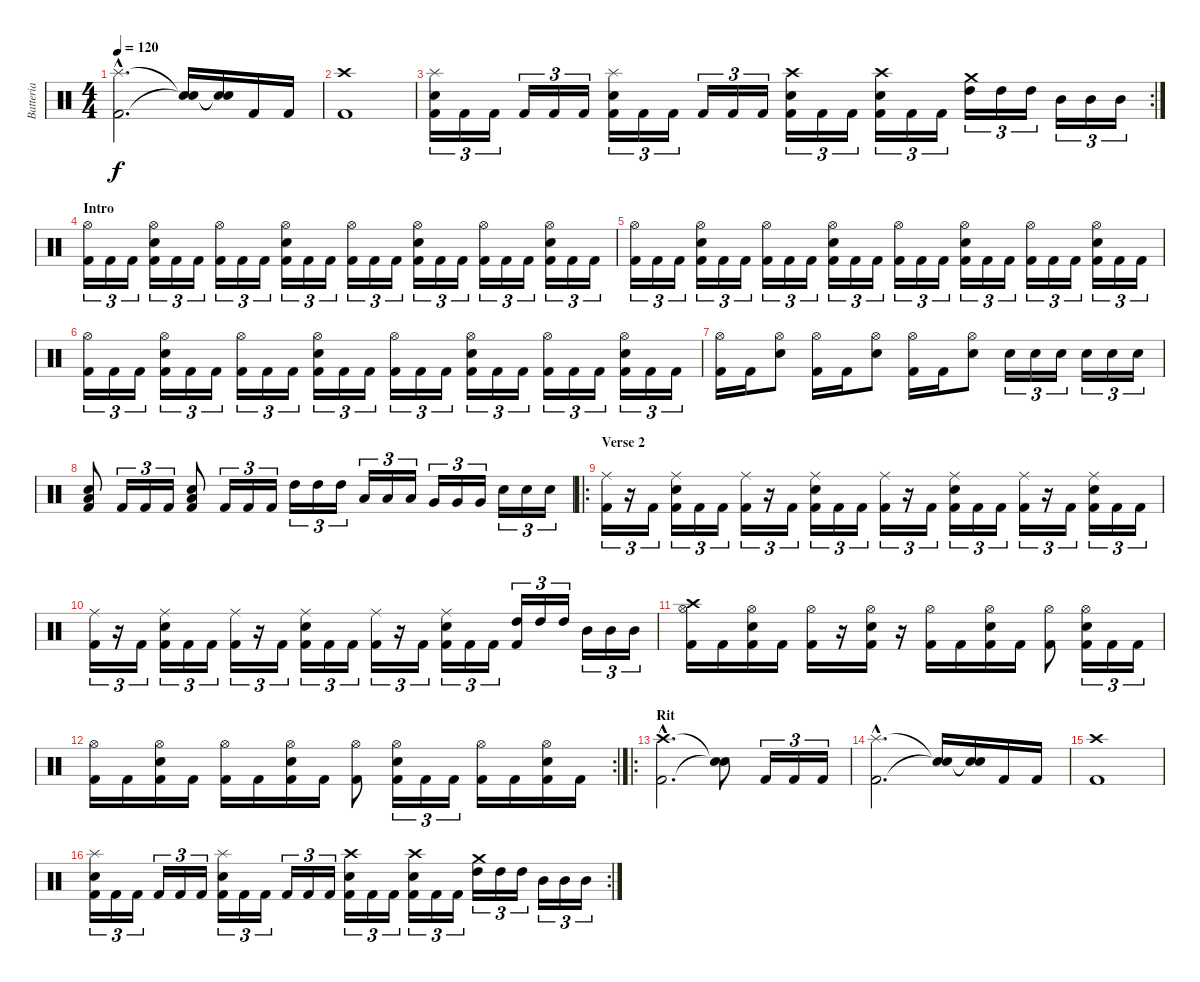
\track ("Batteria" "Batteria") {instrument percussion}
\staff {score}
\articulation defaults
\ts (4 4)
\tempo 120
\clef neutral
\ks c
("Splash (hit)"{hac} "Kick (hit) 2"{hac}).2{d dy f} ("Snare (hit)"{t} "Snare (hit)"{t}).16 ("Snare (hit)"{t} "Snare (hit)"{t}).16 "Kick (hit) 2".16 "Kick (hit) 2".16 |
("Crash high (hit)" "Kick (hit) 2").1 |
\rc 2
("Splash (hit)" "Snare (hit) 2" "Kick (hit) 2").16{tu (3 2)} "Kick (hit) 2".16{tu (3 2)} "Kick (hit) 2".16{tu (3 2)} "Kick (hit) 2".16{tu (3 2)} "Kick (hit) 2".16{tu (3 2)} "Kick (hit) 2".16{tu (3 2)} ("Splash (hit)" "Snare (hit) 2" "Kick (hit) 2").16{tu (3 2)} "Kick (hit) 2".16{tu (3 2)} "Kick (hit) 2".16{tu (3 2)} "Kick (hit) 2".16{tu (3 2)} "Kick (hit) 2".16{tu (3 2)} "Kick (hit) 2".16{tu (3 2)} ("Crash high (hit)" "Snare (hit) 2" "Kick (hit) 2").16{tu (3 2)} "Kick (hit) 2".16{tu (3 2)} "Kick (hit) 2".16{tu (3 2)} ("Crash high (hit)" "Snare (hit) 2" "Kick (hit) 2").16{tu (3 2)} "Kick (hit) 2".16{tu (3 2)} "Kick (hit) 2".16{tu (3 2)} ("Crash medium (hit)" "High Tom (hit)").16{tu (3 2)} "High Tom (hit)".16{tu (3 2)} "High Tom (hit)".16{tu (3 2)} "Mid Tom (hit)".16{tu (3 2)} "Mid Tom (hit)".16{tu (3 2)} "Mid Tom (hit)".16{tu (3 2)} |
\section ("" "Intro")
("Hi-Hat (open)" "Kick (hit) 2").16{tu (3 2)} "Kick (hit) 2".16{tu (3 2)} "Kick (hit) 2".16{tu (3 2)} ("Hi-Hat (open)" "Snare (hit) 2" "Kick (hit) 2").16{tu (3 2)} "Kick (hit) 2".16{tu (3 2)} "Kick (hit) 2".16{tu (3 2)} ("Hi-Hat (open)" "Kick (hit) 2").16{tu (3 2)} "Kick (hit) 2".16{tu (3 2)} "Kick (hit) 2".16{tu (3 2)} ("Hi-Hat (open)" "Snare (hit) 2" "Kick (hit) 2").16{tu (3 2)} "Kick (hit) 2".16{tu (3 2)} "Kick (hit) 2".16{tu (3 2)} ("Hi-Hat (open)" "Kick (hit) 2").16{tu (3 2)} "Kick (hit) 2".16{tu (3 2)} "Kick (hit) 2".16{tu (3 2)} ("Hi-Hat (open)" "Snare (hit) 2" "Kick (hit) 2").16{tu (3 2)} "Kick (hit) 2".16{tu (3 2)} "Kick (hit) 2".16{tu (3 2)} ("Hi-Hat (open)" "Kick (hit) 2").16{tu (3 2)} "Kick (hit) 2".16{tu (3 2)} "Kick (hit) 2".16{tu (3 2)} ("Hi-Hat (open)" "Snare (hit) 2" "Kick (hit) 2").16{tu (3 2)} "Kick (hit) 2".16{tu (3 2)} "Kick (hit) 2".16{tu (3 2)} |
("Hi-Hat (open)" "Kick (hit) 2").16{tu (3 2)} "Kick (hit) 2".16{tu (3 2)} "Kick (hit) 2".16{tu (3 2)} ("Hi-Hat (open)" "Snare (hit) 2" "Kick (hit) 2").16{tu (3 2)} "Kick (hit) 2".16{tu (3 2)} "Kick (hit) 2".16{tu (3 2)} ("Hi-Hat (open)" "Kick (hit) 2").16{tu (3 2)} "Kick (hit) 2".16{tu (3 2)} "Kick (hit) 2".16{tu (3 2)} ("Hi-Hat (open)" "Snare (hit) 2" "Kick (hit) 2").16{tu (3 2)} "Kick (hit) 2".16{tu (3 2)} "Kick (hit) 2".16{tu (3 2)} ("Hi-Hat (open)" "Kick (hit) 2").16{tu (3 2)} "Kick (hit) 2".16{tu (3 2)} "Kick (hit) 2".16{tu (3 2)} ("Hi-Hat (open)" "Snare (hit) 2" "Kick (hit) 2").16{tu (3 2)} "Kick (hit) 2".16{tu (3 2)} "Kick (hit) 2".16{tu (3 2)} ("Hi-Hat (open)" "Kick (hit) 2").16{tu (3 2)} "Kick (hit) 2".16{tu (3 2)} "Kick (hit) 2".16{tu (3 2)} ("Hi-Hat (open)" "Snare (hit) 2" "Kick (hit) 2").16{tu (3 2)} "Kick (hit) 2".16{tu (3 2)} "Kick (hit) 2".16{tu (3 2)} |
("Hi-Hat (open)" "Kick (hit) 2").16{tu (3 2)} "Kick (hit) 2".16{tu (3 2)} "Kick (hit) 2".16{tu (3 2)} ("Hi-Hat (open)" "Snare (hit) 2" "Kick (hit) 2").16{tu (3 2)} "Kick (hit) 2".16{tu (3 2)} "Kick (hit) 2".16{tu (3 2)} ("Hi-Hat (open)" "Kick (hit) 2").16{tu (3 2)} "Kick (hit) 2".16{tu (3 2)} "Kick (hit) 2".16{tu (3 2)} ("Hi-Hat (open)" "Snare (hit) 2" "Kick (hit) 2").16{tu (3 2)} "Kick (hit) 2".16{tu (3 2)} "Kick (hit) 2".16{tu (3 2)} ("Hi-Hat (open)" "Kick (hit) 2").16{tu (3 2)} "Kick (hit) 2".16{tu (3 2)} "Kick (hit) 2".16{tu (3 2)} ("Hi-Hat (open)" "Snare (hit) 2" "Kick (hit) 2").16{tu (3 2)} "Kick (hit) 2".16{tu (3 2)} "Kick (hit) 2".16{tu (3 2)} ("Hi-Hat (open)" "Kick (hit) 2").16{tu (3 2)} "Kick (hit) 2".16{tu (3 2)} "Kick (hit) 2".16{tu (3 2)} ("Hi-Hat (open)" "Snare (hit) 2" "Kick (hit) 2").16{tu (3 2)} "Kick (hit) 2".16{tu (3 2)} "Kick (hit) 2".16{tu (3 2)} |
("Hi-Hat (open)" "Kick (hit) 2").16 "Kick (hit) 2".16 ("Hi-Hat (open)" "Snare (hit) 2").8 ("Hi-Hat (open)" "Kick (hit) 2").16 "Kick (hit) 2".16 ("Hi-Hat (open)" "Snare (hit) 2").8 ("Hi-Hat (open)" "Kick (hit) 2").16 "Kick (hit) 2".16 ("Hi-Hat (open)" "Snare (hit) 2").8 "Snare (hit) 2".16{tu (3 2)} "Snare (hit) 2".16{tu (3 2)} "Snare (hit) 2".16{tu (3 2)} "Snare (hit) 2".16{tu (3 2)} "Snare (hit) 2".16{tu (3 2)} "Snare (hit) 2".16{tu (3 2)} |
("Low Floor Tom (hit)" "Snare (hit) 2" "Kick (hit) 2").8 "Kick (hit) 2".16{tu (3 2)} "Kick (hit) 2".16{tu (3 2)} "Kick (hit) 2".16{tu (3 2)} ("Low Floor Tom (hit)" "Snare (hit) 2" "Kick (hit) 2").8 "Kick (hit) 2".16{tu (3 2)} "Kick (hit) 2".16{tu (3 2)} "Kick (hit) 2".16{tu (3 2)} "High Tom (hit)".16{tu (3 2)} "High Tom (hit)".16{tu (3 2)} "High Tom (hit)".16{tu (3 2)} "Low Tom (hit)".16{tu (3 2)} "Low Tom (hit)".16{tu (3 2)} "Low Tom (hit)".16{tu (3 2)} "Very Low Tom (hit)".16{tu (3 2)} "Very Low Tom (hit)".16{tu (3 2)} "Very Low Tom (hit)".16{tu (3 2)} "Electric Snare (hit)".16{tu (3 2)} "Electric Snare (hit)".16{tu (3 2)} "Electric Snare (hit)".16{tu (3 2)} |
\ro
\section ("" "Verse 2")
("Ride (middle)" "Kick (hit) 2").16{tu (3 2)} r.16{tu (3 2)} "Kick (hit) 2".16{tu (3 2)} ("Ride (middle)" "Snare (hit) 2" "Kick (hit) 2").16{tu (3 2)} "Kick (hit) 2".16{tu (3 2)} "Kick (hit) 2".16{tu (3 2)} ("Ride (middle)" "Kick (hit) 2").16{tu (3 2)} r.16{tu (3 2)} "Kick (hit) 2".16{tu (3 2)} ("Ride (middle)" "Snare (hit) 2" "Kick (hit) 2").16{tu (3 2)} "Kick (hit) 2".16{tu (3 2)} "Kick (hit) 2".16{tu (3 2)} ("Ride (middle)" "Kick (hit) 2").16{tu (3 2)} r.16{tu (3 2)} "Kick (hit) 2".16{tu (3 2)} ("Ride (middle)" "Snare (hit) 2" "Kick (hit) 2").16{tu (3 2)} "Kick (hit) 2".16{tu (3 2)} "Kick (hit) 2".16{tu (3 2)} ("Ride (middle)" "Kick (hit) 2").16{tu (3 2)} r.16{tu (3 2)} "Kick (hit) 2".16{tu (3 2)} ("Ride (middle)" "Snare (hit) 2" "Kick (hit) 2").16{tu (3 2)} "Kick (hit) 2".16{tu (3 2)} "Kick (hit) 2".16{tu (3 2)} |
("Ride (middle)" "Kick (hit) 2").16{tu (3 2)} r.16{tu (3 2)} "Kick (hit) 2".16{tu (3 2)} ("Ride (middle)" "Snare (hit) 2" "Kick (hit) 2").16{tu (3 2)} "Kick (hit) 2".16{tu (3 2)} "Kick (hit) 2".16{tu (3 2)} ("Ride (middle)" "Kick (hit) 2").16{tu (3 2)} r.16{tu (3 2)} "Kick (hit) 2".16{tu (3 2)} ("Ride (middle)" "Snare (hit) 2" "Kick (hit) 2").16{tu (3 2)} "Kick (hit) 2".16{tu (3 2)} "Kick (hit) 2".16{tu (3 2)} ("Ride (middle)" "Kick (hit) 2").16{tu (3 2)} r.16{tu (3 2)} "Kick (hit) 2".16{tu (3 2)} ("Ride (middle)" "Snare (hit) 2" "Kick (hit) 2").16{tu (3 2)} "Kick (hit) 2".16{tu (3 2)} "Kick (hit) 2".16{tu (3 2)} ("High Tom (hit)" "Kick (hit) 2").16{tu (3 2)} "High Tom (hit)".16{tu (3 2)} "High Tom (hit)".16{tu (3 2)} "Mid Tom (hit)".16{tu (3 2)} "Mid Tom (hit)".16{tu (3 2)} "Mid Tom (hit)".16{tu (3 2)} |
("Hi-Hat (open)" "Crash high (hit)" "Kick (hit) 2").16 "Kick (hit) 2".16 ("Hi-Hat (open)" "Snare (hit) 2" "Kick (hit) 2").16 "Kick (hit) 2".16 ("Hi-Hat (open)" "Kick (hit) 2").16 r.16 ("Hi-Hat (open)" "Snare (hit) 2" "Kick (hit) 2").16 r.16 ("Hi-Hat (open)" "Kick (hit) 2").16 "Kick (hit) 2".16 ("Hi-Hat (open)" "Snare (hit) 2" "Kick (hit) 2").16 "Kick (hit) 2".16 ("Hi-Hat (open)" "Kick (hit) 2").8 ("Hi-Hat (open)" "Snare (hit) 2" "Kick (hit) 2").16{tu (3 2)} "Kick (hit) 2".16{tu (3 2)} "Kick (hit) 2".16{tu (3 2)} |
\rc 2
("Hi-Hat (open)" "Kick (hit) 2").16 "Kick (hit) 2".16 ("Hi-Hat (open)" "Snare (hit) 2" "Kick (hit) 2").16 "Kick (hit) 2".16 ("Hi-Hat (open)" "Kick (hit) 2").16 "Kick (hit) 2".16 ("Hi-Hat (open)" "Snare (hit) 2" "Kick (hit) 2").16 "Kick (hit) 2".16 ("Hi-Hat (open)" "Kick (hit) 2").8 ("Hi-Hat (open)" "Snare (hit) 2" "Kick (hit) 2").16{tu (3 2)} "Kick (hit) 2".16{tu (3 2)} "Kick (hit) 2".16{tu (3 2)} ("Hi-Hat (open)" "Kick (hit) 2").16 "Kick (hit) 2".16 ("Hi-Hat (open)" "Snare (hit) 2" "Kick (hit) 2").16 "Kick (hit) 2".16 |
\ro
\section ("" "Rit")
("Crash high (hit)"{hac} "Kick (hit) 2"{hac}).2{d} ("Snare (hit)"{t} "Snare (hit)"{t}).8 "Kick (hit) 2".16{tu (3 2)} "Kick (hit) 2".16{tu (3 2)} "Kick (hit) 2".16{tu (3 2)} |
("Splash (hit)"{hac} "Kick (hit) 2"{hac}).2{d} ("Snare (hit)"{t} "Snare (hit)"{t}).16 ("Snare (hit)"{t} "Snare (hit)"{t}).16 "Kick (hit) 2".16 "Kick (hit) 2".16 |
("Crash high (hit)" "Kick (hit) 2").1 |
\rc 2
("Splash (hit)" "Snare (hit) 2" "Kick (hit) 2").16{tu (3 2)} "Kick (hit) 2".16{tu (3 2)} "Kick (hit) 2".16{tu (3 2)} "Kick (hit) 2".16{tu (3 2)} "Kick (hit) 2".16{tu (3 2)} "Kick (hit) 2".16{tu (3 2)} ("Splash (hit)" "Snare (hit) 2" "Kick (hit) 2").16{tu (3 2)} "Kick (hit) 2".16{tu (3 2)} "Kick (hit) 2".16{tu (3 2)} "Kick (hit) 2".16{tu (3 2)} "Kick (hit) 2".16{tu (3 2)} "Kick (hit) 2".16{tu (3 2)} ("Crash high (hit)" "Snare (hit) 2" "Kick (hit) 2").16{tu (3 2)} "Kick (hit) 2".16{tu (3 2)} "Kick (hit) 2".16{tu (3 2)} ("Crash high (hit)" "Snare (hit) 2" "Kick (hit) 2").16{tu (3 2)} "Kick (hit) 2".16{tu (3 2)} "Kick (hit) 2".16{tu (3 2)} ("Crash medium (hit)" "High Tom (hit)").16{tu (3 2)} "High Tom (hit)".16{tu (3 2)} "High Tom (hit)".16{tu (3 2)} "Mid Tom (hit)".16{tu (3 2)} "Mid Tom (hit)".16{tu (3 2)} "Mid Tom (hit)".16{tu (3 2)}
